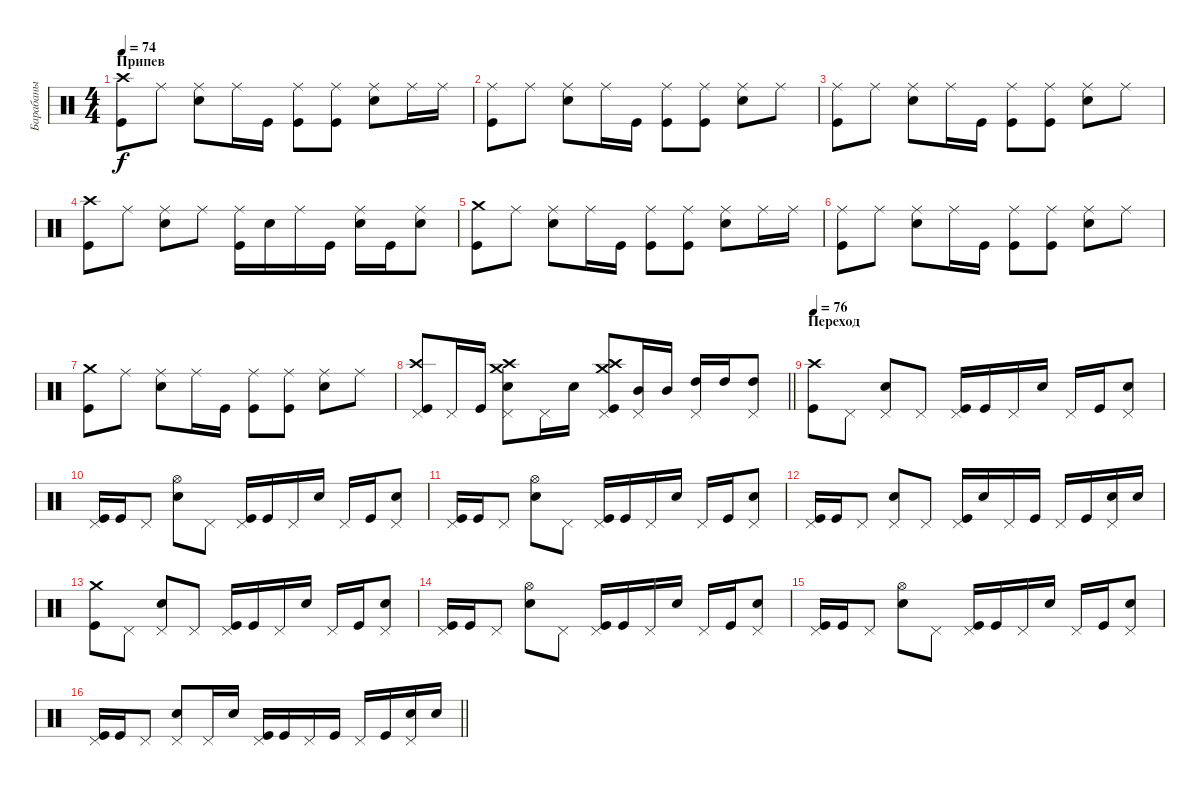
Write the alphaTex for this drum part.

\track ("Барабаны" "Барабаны") {instrument percussion}
\staff {score}
\articulation defaults
\ts (4 4)
\section ("" "Припев")
\tempo 74
\clef neutral
\ks c
("Kick (hit)" "Crash high (hit)").8{dy f} "Ride (middle)".8 ("Snare (hit) 2" "Ride (middle)").8 "Ride (middle)".16 "Kick (hit)".16 ("Kick (hit)" "Ride (middle)").8 ("Kick (hit)" "Ride (middle)").8 ("Snare (hit) 2" "Ride (middle)").8 "Ride (middle)".16 "Ride (middle)".16 |
("Kick (hit)" "Ride (middle)").8 "Ride (middle)".8 ("Snare (hit) 2" "Ride (middle)").8 "Ride (middle)".16 "Kick (hit)".16 ("Kick (hit)" "Ride (middle)").8 ("Kick (hit)" "Ride (middle)").8 ("Snare (hit) 2" "Ride (middle)").8 "Ride (middle)".8 |
("Kick (hit)" "Ride (middle)").8 "Ride (middle)".8 ("Snare (hit) 2" "Ride (middle)").8 "Ride (middle)".16 "Kick (hit)".16 ("Kick (hit)" "Ride (middle)").8 ("Kick (hit)" "Ride (middle)").8 ("Snare (hit) 2" "Ride (middle)").8 "Ride (middle)".8 |
("Kick (hit)" "Crash high (hit)").8 "Ride (middle)".8 ("Snare (hit) 2" "Ride (middle)").8 "Ride (middle)".8 ("Kick (hit)" "Ride (middle)").16 "Snare (hit) 2".16 "Ride (middle)".16 "Kick (hit)".16 ("Snare (hit) 2" "Ride (middle)").16 "Kick (hit)".16 ("Snare (hit) 2" "Ride (middle)").8 |
("Kick (hit)" "Crash medium (hit)").8 "Ride (middle)".8 ("Snare (hit) 2" "Ride (middle)").8 "Ride (middle)".16 "Kick (hit)".16 ("Kick (hit)" "Ride (middle)").8 ("Kick (hit)" "Ride (middle)").8 ("Snare (hit) 2" "Ride (middle)").8 "Ride (middle)".16 "Ride (middle)".16 |
("Kick (hit)" "Ride (middle)").8 "Ride (middle)".8 ("Snare (hit) 2" "Ride (middle)").8 "Ride (middle)".16 "Kick (hit)".16 ("Kick (hit)" "Ride (middle)").8 ("Kick (hit)" "Ride (middle)").8 ("Snare (hit) 2" "Ride (middle)").8 "Ride (middle)".8 |
("Kick (hit)" "Crash medium (hit)").8 "Ride (middle)".8 ("Snare (hit) 2" "Ride (middle)").8 "Ride (middle)".16 "Kick (hit)".16 ("Kick (hit)" "Ride (middle)").8 ("Kick (hit)" "Ride (middle)").8 ("Snare (hit) 2" "Ride (middle)").8 "Ride (middle)".8 |
\barLineRight lightlight
("Kick (hit)" "Crash high (hit)" "Pedal Hi-Hat (hit)").8 "Pedal Hi-Hat (hit)".16 "Kick (hit)".16 ("Snare (hit) 2" "Crash high (hit)" "Crash medium (hit)" "Pedal Hi-Hat (hit)").8 "Pedal Hi-Hat (hit)".16 "Snare (hit) 2".16 ("Kick (hit)" "Crash high (hit)" "Crash medium (hit)" "Pedal Hi-Hat (hit)").8 ("Mid Tom (hit)" "Pedal Hi-Hat (hit)").16 "Mid Tom (hit)".16 ("High Tom (hit)" "Pedal Hi-Hat (hit)").16 "High Tom (hit)".16 ("High Tom (hit)" "Pedal Hi-Hat (hit)").8 |
\section ("" "Переход")
\tempo 76
("Kick (hit)" "Crash high (hit)").8 "Pedal Hi-Hat (hit)".8 ("Snare (hit) 2" "Pedal Hi-Hat (hit)").8 "Pedal Hi-Hat (hit)".8 ("Kick (hit)" "Pedal Hi-Hat (hit)").16 "Kick (hit)".16 "Pedal Hi-Hat (hit)".16 "Snare (hit) 2".16 "Pedal Hi-Hat (hit)".16 "Kick (hit)".16 ("Snare (hit) 2" "Pedal Hi-Hat (hit)").8 |
("Kick (hit)" "Pedal Hi-Hat (hit)").16 "Kick (hit)".16 "Pedal Hi-Hat (hit)".8 ("Snare (hit) 2" "Hi-Hat (open)").8 "Pedal Hi-Hat (hit)".8 ("Kick (hit)" "Pedal Hi-Hat (hit)").16 "Kick (hit)".16 "Pedal Hi-Hat (hit)".16 "Snare (hit) 2".16 "Pedal Hi-Hat (hit)".16 "Kick (hit)".16 ("Snare (hit) 2" "Pedal Hi-Hat (hit)").8 |
("Kick (hit)" "Pedal Hi-Hat (hit)").16 "Kick (hit)".16 "Pedal Hi-Hat (hit)".8 ("Snare (hit) 2" "Hi-Hat (open)").8 "Pedal Hi-Hat (hit)".8 ("Kick (hit)" "Pedal Hi-Hat (hit)").16 "Kick (hit)".16 "Pedal Hi-Hat (hit)".16 "Snare (hit) 2".16 "Pedal Hi-Hat (hit)".16 "Kick (hit)".16 ("Snare (hit) 2" "Pedal Hi-Hat (hit)").8 |
("Kick (hit)" "Pedal Hi-Hat (hit)").16 "Kick (hit)".16 "Pedal Hi-Hat (hit)".8 ("Snare (hit) 2" "Pedal Hi-Hat (hit)").8 "Pedal Hi-Hat (hit)".8 ("Kick (hit)" "Pedal Hi-Hat (hit)").16 "Snare (hit) 2".16 "Pedal Hi-Hat (hit)".16 "Kick (hit)".16 "Pedal Hi-Hat (hit)".16 "Kick (hit)".16 ("Snare (hit) 2" "Pedal Hi-Hat (hit)").16 "Snare (hit) 2".16 |
("Kick (hit)" "Crash medium (hit)").8 "Pedal Hi-Hat (hit)".8 ("Snare (hit) 2" "Pedal Hi-Hat (hit)").8 "Pedal Hi-Hat (hit)".8 ("Kick (hit)" "Pedal Hi-Hat (hit)").16 "Kick (hit)".16 "Pedal Hi-Hat (hit)".16 "Snare (hit) 2".16 "Pedal Hi-Hat (hit)".16 "Kick (hit)".16 ("Snare (hit) 2" "Pedal Hi-Hat (hit)").8 |
("Kick (hit)" "Pedal Hi-Hat (hit)").16 "Kick (hit)".16 "Pedal Hi-Hat (hit)".8 ("Snare (hit) 2" "Hi-Hat (open)").8 "Pedal Hi-Hat (hit)".8 ("Kick (hit)" "Pedal Hi-Hat (hit)").16 "Kick (hit)".16 "Pedal Hi-Hat (hit)".16 "Snare (hit) 2".16 "Pedal Hi-Hat (hit)".16 "Kick (hit)".16 ("Snare (hit) 2" "Pedal Hi-Hat (hit)").8 |
("Kick (hit)" "Pedal Hi-Hat (hit)").16 "Kick (hit)".16 "Pedal Hi-Hat (hit)".8 ("Snare (hit) 2" "Hi-Hat (open)").8 "Pedal Hi-Hat (hit)".8 ("Kick (hit)" "Pedal Hi-Hat (hit)").16 "Kick (hit)".16 "Pedal Hi-Hat (hit)".16 "Snare (hit) 2".16 "Pedal Hi-Hat (hit)".16 "Kick (hit)".16 ("Snare (hit) 2" "Pedal Hi-Hat (hit)").8 |
\barLineRight lightlight
("Kick (hit)" "Pedal Hi-Hat (hit)").16 "Kick (hit)".16 "Pedal Hi-Hat (hit)".8 ("Snare (hit) 2" "Pedal Hi-Hat (hit)").8 "Pedal Hi-Hat (hit)".16 "Snare (hit) 2".16 ("Kick (hit)" "Pedal Hi-Hat (hit)").16 "Kick (hit)".16 "Pedal Hi-Hat (hit)".16 "Kick (hit)".16 "Pedal Hi-Hat (hit)".16 "Kick (hit)".16 ("Snare (hit) 2" "Pedal Hi-Hat (hit)").16 "Snare (hit) 2".16
